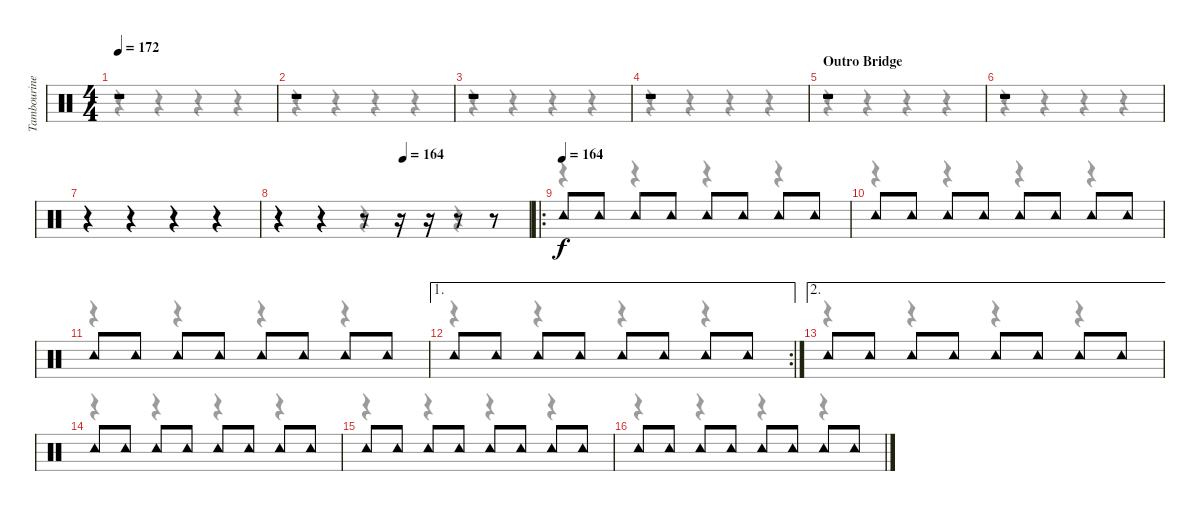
\track ("Tambourine" "Tambourine") {instrument percussion}
\staff {score}
\articulation defaults
\voice
\ts (4 4)
\tempo 172
\clef neutral
\ks c
r.1{dy f} |
r.1 |
r.1 |
r.1 |
\section ("" "Outro Bridge")
r.1 |
r.1 |
r.4 r.4 r.4 r.4 |
\tempo (164 0.5)
r.4 r.4 r.8 r.16 r.16 r.8 r.8 |
\ro
\tempo (164)
"Tambourine (hit)".8 "Tambourine (hit)".8 "Tambourine (hit)".8 "Tambourine (hit)".8 "Tambourine (hit)".8 "Tambourine (hit)".8 "Tambourine (hit)".8 "Tambourine (hit)".8 |
"Tambourine (hit)".8 "Tambourine (hit)".8 "Tambourine (hit)".8 "Tambourine (hit)".8 "Tambourine (hit)".8 "Tambourine (hit)".8 "Tambourine (hit)".8 "Tambourine (hit)".8 |
"Tambourine (hit)".8 "Tambourine (hit)".8 "Tambourine (hit)".8 "Tambourine (hit)".8 "Tambourine (hit)".8 "Tambourine (hit)".8 "Tambourine (hit)".8 "Tambourine (hit)".8 |
\ae 1
\rc 2 "Tambourine (hit)".8 "Tambourine (hit)".8 "Tambourine (hit)".8 "Tambourine (hit)".8 "Tambourine (hit)".8 "Tambourine (hit)".8 "Tambourine (hit)".8 "Tambourine (hit)".8
|
\ae 2 "Tambourine (hit)".8 "Tambourine (hit)".8 "Tambourine (hit)".8 "Tambourine (hit)".8 "Tambourine (hit)".8 "Tambourine (hit)".8 "Tambourine (hit)".8 "Tambourine (hit)".8
|
"Tambourine (hit)".8 "Tambourine (hit)".8 "Tambourine (hit)".8 "Tambourine (hit)".8 "Tambourine (hit)".8 "Tambourine (hit)".8 "Tambourine (hit)".8 "Tambourine (hit)".8 |
"Tambourine (hit)".8 "Tambourine (hit)".8 "Tambourine (hit)".8 "Tambourine (hit)".8 "Tambourine (hit)".8 "Tambourine (hit)".8 "Tambourine (hit)".8 "Tambourine (hit)".8 |
"Tambourine (hit)".8 "Tambourine (hit)".8 "Tambourine (hit)".8 "Tambourine (hit)".8 "Tambourine (hit)".8 "Tambourine (hit)".8 "Tambourine (hit)".8 "Tambourine (hit)".8
\voice
\clef neutral
\ottava regular
\simile none
\ks c
r.4{dy f} r.4 r.4 r.4 |
r.4 r.4 r.4 r.4 |
r.4 r.4 r.4 r.4 |
r.4 r.4 r.4 r.4 |
r.4 r.4 r.4 r.4 |
r.4 r.4 r.4 r.4 |
r.4 r.4 r.4 r.4 |
r.4 r.4 r.4 r.4 |
r.4 r.4 r.4 r.4 |
r.4 r.4 r.4 r.4 |
r.4 r.4 r.4 r.4 |
r.4 r.4 r.4 r.4 |
r.4 r.4 r.4 r.4 |
r.4 r.4 r.4 r.4 |
r.4 r.4 r.4 r.4 |
r.4 r.4 r.4 r.4
